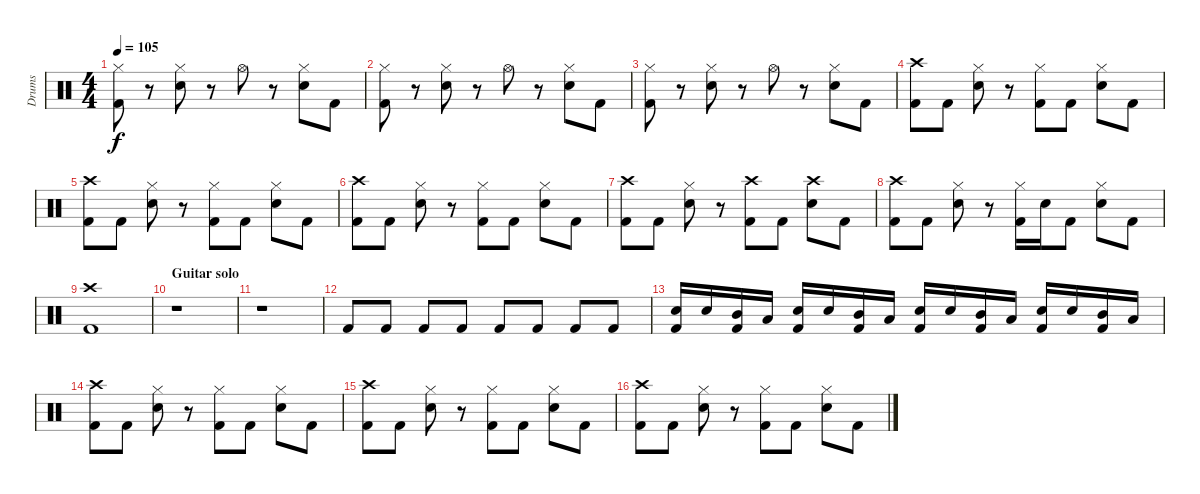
\track ("Drums" "Drums") {instrument percussion}
\staff {score}
\articulation defaults
\ts (4 4)
\tempo 105
\clef neutral
\ks c
("Hi-Hat (closed)" "Kick (hit) 2").8{dy f} r.8 ("Hi-Hat (closed)" "Electric Snare (hit)").8 r.8 "Hi-Hat (open)".8 r.8 ("Hi-Hat (closed)" "Electric Snare (hit)").8 "Kick (hit) 2".8 |
("Hi-Hat (closed)" "Kick (hit) 2").8 r.8 ("Hi-Hat (closed)" "Electric Snare (hit)").8 r.8 "Hi-Hat (open)".8 r.8 ("Hi-Hat (closed)" "Electric Snare (hit)").8 "Kick (hit) 2".8 |
("Hi-Hat (closed)" "Kick (hit) 2").8 r.8 ("Hi-Hat (closed)" "Electric Snare (hit)").8 r.8 "Hi-Hat (open)".8 r.8 ("Hi-Hat (closed)" "Electric Snare (hit)").8 "Kick (hit) 2".8 |
("Crash high (hit)" "Kick (hit) 2").8 "Kick (hit) 2".8 ("Hi-Hat (closed)" "Electric Snare (hit)").8 r.8 ("Hi-Hat (closed)" "Kick (hit) 2").8 "Kick (hit) 2".8 ("Hi-Hat (closed)" "Electric Snare (hit)").8 "Kick (hit) 2".8 |
("Crash high (hit)" "Kick (hit) 2").8 "Kick (hit) 2".8 ("Hi-Hat (closed)" "Electric Snare (hit)").8 r.8 ("Hi-Hat (closed)" "Kick (hit) 2").8 "Kick (hit) 2".8 ("Hi-Hat (closed)" "Electric Snare (hit)").8 "Kick (hit) 2".8 |
("Crash high (hit)" "Kick (hit) 2").8 "Kick (hit) 2".8 ("Hi-Hat (closed)" "Electric Snare (hit)").8 r.8 ("Hi-Hat (closed)" "Kick (hit) 2").8 "Kick (hit) 2".8 ("Hi-Hat (closed)" "Electric Snare (hit)").8 "Kick (hit) 2".8 |
("Crash high (hit)" "Kick (hit) 2").8 "Kick (hit) 2".8 ("Hi-Hat (closed)" "Electric Snare (hit)").8 r.8 ("Crash high (hit)" "Kick (hit) 2").8 "Kick (hit) 2".8 ("Crash high (hit)" "Electric Snare (hit)").8 "Kick (hit) 2".8 |
("Crash high (hit)" "Kick (hit) 2").8 "Kick (hit) 2".8 ("Hi-Hat (closed)" "Electric Snare (hit)").8 r.8 ("Hi-Hat (closed)" "Kick (hit) 2").16 "Electric Snare (hit)".16 "Kick (hit) 2".8 ("Hi-Hat (closed)" "Electric Snare (hit)").8 "Kick (hit) 2".8 |
("Crash high (hit)" "Kick (hit) 2").1 |
\section ("" "Guitar solo")
r.1 |
r.1 |
"Kick (hit) 2".8 "Kick (hit) 2".8 "Kick (hit) 2".8 "Kick (hit) 2".8 "Kick (hit) 2".8 "Kick (hit) 2".8 "Kick (hit) 2".8 "Kick (hit) 2".8 |
("Electric Snare (hit)" "Kick (hit) 2").16 "Electric Snare (hit)".16 ("Mid Tom (hit)" "Kick (hit) 2").16 "Low Tom (hit)".16 ("Electric Snare (hit)" "Kick (hit) 2").16 "Electric Snare (hit)".16 ("Mid Tom (hit)" "Kick (hit) 2").16 "Low Tom (hit)".16 ("Electric Snare (hit)" "Kick (hit) 2").16 "Electric Snare (hit)".16 ("Mid Tom (hit)" "Kick (hit) 2").16 "Low Tom (hit)".16 ("Electric Snare (hit)" "Kick (hit) 2").16 "Electric Snare (hit)".16 ("Mid Tom (hit)" "Kick (hit) 2").16 "Low Tom (hit)".16 |
("Crash high (hit)" "Kick (hit) 2").8 "Kick (hit) 2".8 ("Hi-Hat (closed)" "Electric Snare (hit)").8 r.8 ("Hi-Hat (closed)" "Kick (hit) 2").8 "Kick (hit) 2".8 ("Hi-Hat (closed)" "Electric Snare (hit)").8 "Kick (hit) 2".8 |
("Crash high (hit)" "Kick (hit) 2").8 "Kick (hit) 2".8 ("Hi-Hat (closed)" "Electric Snare (hit)").8 r.8 ("Hi-Hat (closed)" "Kick (hit) 2").8 "Kick (hit) 2".8 ("Hi-Hat (closed)" "Electric Snare (hit)").8 "Kick (hit) 2".8 |
("Crash high (hit)" "Kick (hit) 2").8 "Kick (hit) 2".8 ("Hi-Hat (closed)" "Electric Snare (hit)").8 r.8 ("Hi-Hat (closed)" "Kick (hit) 2").8 "Kick (hit) 2".8 ("Hi-Hat (closed)" "Electric Snare (hit)").8 "Kick (hit) 2".8
